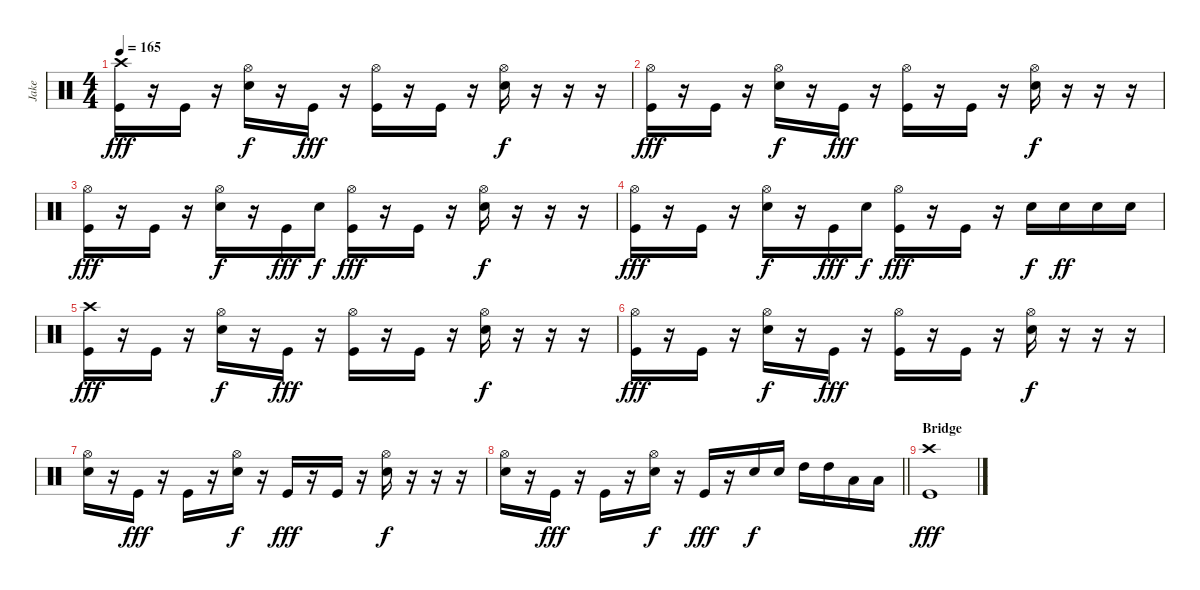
\track ("Jake" "Jake") {instrument percussion}
\staff {score}
\articulation defaults
\ts (4 4)
\tempo 165
\clef neutral
\ks c
("Crash high (hit)" "Kick (hit)").16{dy fff} r.16 "Kick (hit)".16 r.16 ("Hi-Hat (open)" "Electric Snare (hit)").16{dy f} r.16 "Kick (hit)".16{dy fff} r.16 ("Hi-Hat (open)" "Kick (hit)").16 r.16 "Kick (hit)".16 r.16 ("Hi-Hat (open)" "Electric Snare (hit)").16{dy f} r.16 r.16 r.16 |
("Hi-Hat (open)" "Kick (hit)").16{dy fff} r.16 "Kick (hit)".16 r.16 ("Hi-Hat (open)" "Electric Snare (hit)").16{dy f} r.16 "Kick (hit)".16{dy fff} r.16 ("Hi-Hat (open)" "Kick (hit)").16 r.16 "Kick (hit)".16 r.16 ("Hi-Hat (open)" "Electric Snare (hit)").16{dy f} r.16 r.16 r.16 |
("Hi-Hat (open)" "Kick (hit)").16{dy fff} r.16 "Kick (hit)".16 r.16 ("Hi-Hat (open)" "Electric Snare (hit)").16{dy f} r.16 "Kick (hit)".16{dy fff} "Electric Snare (hit)".16{dy f} ("Hi-Hat (open)" "Kick (hit)").16{dy fff} r.16 "Kick (hit)".16 r.16 ("Hi-Hat (open)" "Electric Snare (hit)").16{dy f} r.16 r.16 r.16 |
("Hi-Hat (open)" "Kick (hit)").16{dy fff} r.16 "Kick (hit)".16 r.16 ("Hi-Hat (open)" "Electric Snare (hit)").16{dy f} r.16 "Kick (hit)".16{dy fff} "Electric Snare (hit)".16{dy f} ("Hi-Hat (open)" "Kick (hit)").16{dy fff} r.16 "Kick (hit)".16 r.16 "Electric Snare (hit)".16{dy f} "Electric Snare (hit)".16{dy ff} "Electric Snare (hit)".16 "Electric Snare (hit)".16 |
("Crash high (hit)" "Kick (hit)").16{dy fff} r.16 "Kick (hit)".16 r.16 ("Hi-Hat (open)" "Electric Snare (hit)").16{dy f} r.16 "Kick (hit)".16{dy fff} r.16 ("Hi-Hat (open)" "Kick (hit)").16 r.16 "Kick (hit)".16 r.16 ("Hi-Hat (open)" "Electric Snare (hit)").16{dy f} r.16 r.16 r.16 |
("Hi-Hat (open)" "Kick (hit)").16{dy fff} r.16 "Kick (hit)".16 r.16 ("Hi-Hat (open)" "Electric Snare (hit)").16{dy f} r.16 "Kick (hit)".16{dy fff} r.16 ("Hi-Hat (open)" "Kick (hit)").16 r.16 "Kick (hit)".16 r.16 ("Hi-Hat (open)" "Electric Snare (hit)").16{dy f} r.16 r.16 r.16 |
("Hi-Hat (open)" "Electric Snare (hit)").16 r.16 "Kick (hit)".16{dy fff} r.16 "Kick (hit)".16 r.16 ("Hi-Hat (open)" "Electric Snare (hit)").16{dy f} r.16 "Kick (hit)".16{dy fff} r.16 "Kick (hit)".16 r.16 ("Hi-Hat (open)" "Electric Snare (hit)").16{dy f} r.16 r.16 r.16 |
\barLineRight lightlight
("Hi-Hat (open)" "Electric Snare (hit)").16 r.16 "Kick (hit)".16{dy fff} r.16 "Kick (hit)".16 r.16 ("Hi-Hat (open)" "Electric Snare (hit)").16{dy f} r.16 "Kick (hit)".16{dy fff} r.16 "Electric Snare (hit)".16{dy f} "Electric Snare (hit)".16 "High Tom (hit)".16 "High Tom (hit)".16 "Low Tom (hit)".16 "Low Tom (hit)".16 |
\section ("" "Bridge")
("Crash high (hit)" "Kick (hit)").1{dy fff}
